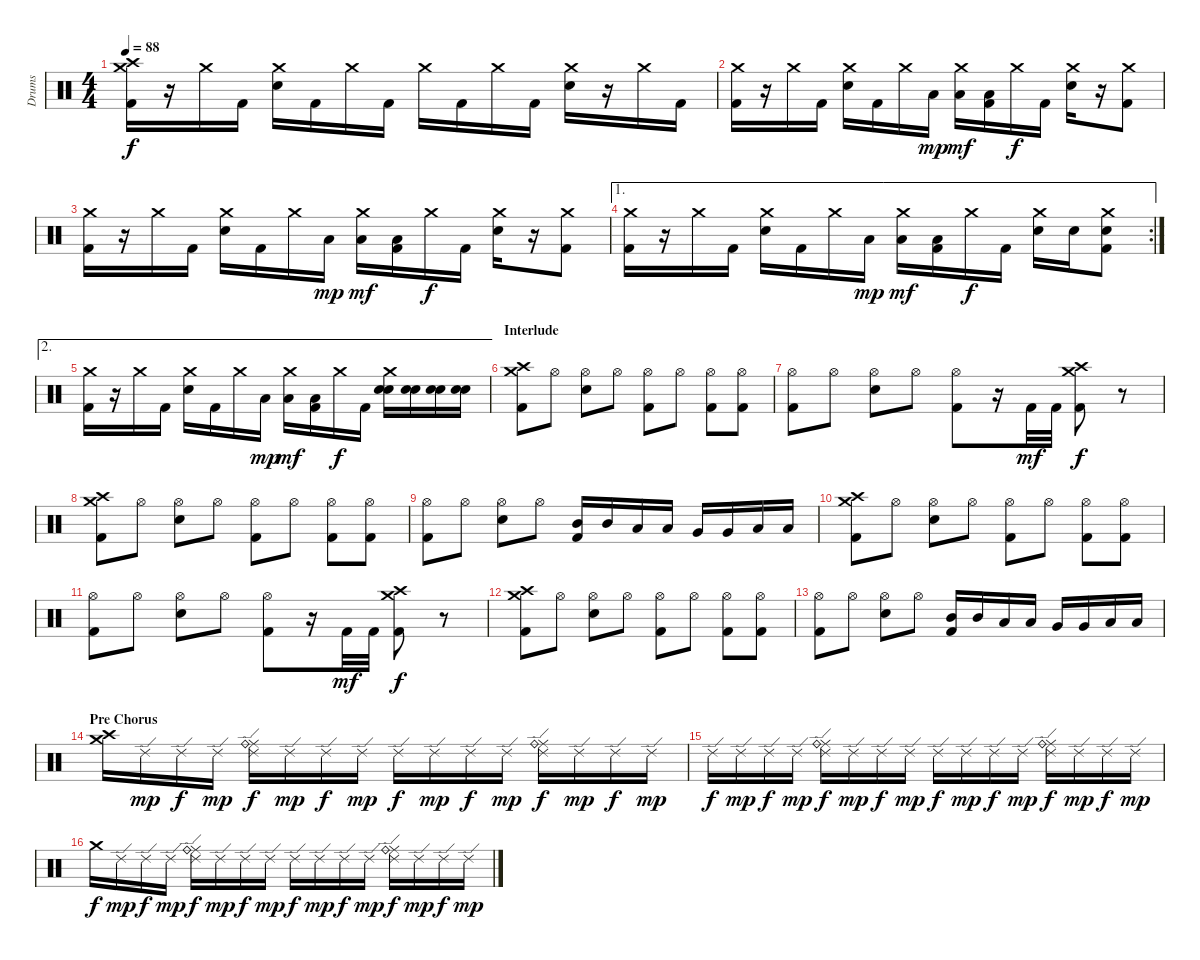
\track ("Drums" "Drums") {instrument percussion}
\staff {score}
\articulation defaults
\ts (4 4)
\tempo 88
\clef neutral
\ks c
("Crash medium (hit)" "Crash high (hit)" "Kick (hit) 2").16{dy f} r.16 "Crash medium (hit)".16 "Kick (hit) 2".16 ("Crash medium (hit)" "Electric Snare (hit)").16 "Kick (hit) 2".16 "Crash medium (hit)".16 "Kick (hit) 2".16 "Crash medium (hit)".16 "Kick (hit) 2".16 "Crash medium (hit)".16 "Kick (hit) 2".16 ("Crash medium (hit)" "Electric Snare (hit)").16 r.16 "Crash medium (hit)".16 "Kick (hit) 2".16 |
("Crash medium (hit)" "Kick (hit) 2").16 r.16 "Crash medium (hit)".16 "Kick (hit) 2".16 ("Crash medium (hit)" "Electric Snare (hit)").16 "Kick (hit) 2".16 "Crash medium (hit)".16 "Low Tom (hit)".16{dy mp} ("Crash medium (hit)" "Low Tom (hit)").16{dy mf} ("Low Tom (hit)" "Kick (hit) 2").16 "Crash medium (hit)".16{dy f} "Kick (hit) 2".16 ("Crash medium (hit)" "Electric Snare (hit)").16 r.16 ("Crash medium (hit)" "Kick (hit) 2").8 |
("Crash medium (hit)" "Kick (hit) 2").16 r.16 "Crash medium (hit)".16 "Kick (hit) 2".16 ("Crash medium (hit)" "Electric Snare (hit)").16 "Kick (hit) 2".16 "Crash medium (hit)".16 "Low Tom (hit)".16{dy mp} ("Crash medium (hit)" "Low Tom (hit)").16{dy mf} ("Low Tom (hit)" "Kick (hit) 2").16 "Crash medium (hit)".16{dy f} "Kick (hit) 2".16 ("Crash medium (hit)" "Electric Snare (hit)").16 r.16 ("Crash medium (hit)" "Kick (hit) 2").8 |
\ae 1
\rc 2
("Crash medium (hit)" "Kick (hit) 2").16 r.16 "Crash medium (hit)".16 "Kick (hit) 2".16 ("Crash medium (hit)" "Electric Snare (hit)").16 "Kick (hit) 2".16 "Crash medium (hit)".16 "Low Tom (hit)".16{dy mp} ("Crash medium (hit)" "Low Tom (hit)").16{dy mf} ("Low Tom (hit)" "Kick (hit) 2").16 "Crash medium (hit)".16{dy f} "Kick (hit) 2".16 ("Crash medium (hit)" "Electric Snare (hit)").16 "Electric Snare (hit)".16 ("Crash medium (hit)" "Electric Snare (hit)" "Kick (hit) 2").8 |
\ae 2
("Crash medium (hit)" "Kick (hit) 2").16 r.16 "Crash medium (hit)".16 "Kick (hit) 2".16 ("Crash medium (hit)" "Electric Snare (hit)").16 "Kick (hit) 2".16 "Crash medium (hit)".16 "Low Tom (hit)".16{dy mp} ("Crash medium (hit)" "Low Tom (hit)").16{dy mf} ("Low Tom (hit)" "Kick (hit) 2").16 "Crash medium (hit)".16{dy f} "Kick (hit) 2".16 ("Crash medium (hit)" "Electric Snare (hit)" "Snare (hit) 2").16 ("Electric Snare (hit)" "Snare (hit) 2").16 ("Electric Snare (hit)" "Snare (hit) 2").16 ("Electric Snare (hit)" "Snare (hit) 2").16 |
\section ("" "Interlude")
("Crash high (hit)" "Crash medium (hit)" "Kick (hit) 2").8 "Hi-Hat (open)".8 ("Hi-Hat (open)" "Electric Snare (hit)").8 "Hi-Hat (open)".8 ("Hi-Hat (open)" "Kick (hit) 2").8 "Hi-Hat (open)".8 ("Hi-Hat (open)" "Kick (hit) 2").8 ("Hi-Hat (open)" "Kick (hit) 2").8 |
("Hi-Hat (open)" "Kick (hit) 2").8 "Hi-Hat (open)".8 ("Hi-Hat (open)" "Electric Snare (hit)").8 "Hi-Hat (open)".8 ("Hi-Hat (open)" "Kick (hit) 2").8 r.16 "Kick (hit) 2".32{dy mf} "Kick (hit) 2".32 ("Crash high (hit)" "Crash medium (hit)" "Kick (hit) 2").8{dy f} r.8 |
("Crash high (hit)" "Crash medium (hit)" "Kick (hit) 2").8 "Hi-Hat (open)".8 ("Hi-Hat (open)" "Electric Snare (hit)").8 "Hi-Hat (open)".8 ("Hi-Hat (open)" "Kick (hit) 2").8 "Hi-Hat (open)".8 ("Hi-Hat (open)" "Kick (hit) 2").8 ("Hi-Hat (open)" "Kick (hit) 2").8 |
("Hi-Hat (open)" "Kick (hit) 2").8 "Hi-Hat (open)".8 ("Hi-Hat (open)" "Electric Snare (hit)").8 "Hi-Hat (open)".8 ("Mid Tom (hit)" "Kick (hit) 2").16 "Mid Tom (hit)".16 "Low Tom (hit)".16 "Low Tom (hit)".16 "Very Low Tom (hit)".16 "Very Low Tom (hit)".16 "Low Floor Tom (hit)".16 "Low Floor Tom (hit)".16 |
("Crash high (hit)" "Crash medium (hit)" "Kick (hit) 2").8 "Hi-Hat (open)".8 ("Hi-Hat (open)" "Electric Snare (hit)").8 "Hi-Hat (open)".8 ("Hi-Hat (open)" "Kick (hit) 2").8 "Hi-Hat (open)".8 ("Hi-Hat (open)" "Kick (hit) 2").8 ("Hi-Hat (open)" "Kick (hit) 2").8 |
("Hi-Hat (open)" "Kick (hit) 2").8 "Hi-Hat (open)".8 ("Hi-Hat (open)" "Electric Snare (hit)").8 "Hi-Hat (open)".8 ("Hi-Hat (open)" "Kick (hit) 2").8 r.16 "Kick (hit) 2".32{dy mf} "Kick (hit) 2".32 ("Crash high (hit)" "Crash medium (hit)" "Kick (hit) 2").8{dy f} r.8 |
("Crash high (hit)" "Crash medium (hit)" "Kick (hit) 2").8 "Hi-Hat (open)".8 ("Hi-Hat (open)" "Electric Snare (hit)").8 "Hi-Hat (open)".8 ("Hi-Hat (open)" "Kick (hit) 2").8 "Hi-Hat (open)".8 ("Hi-Hat (open)" "Kick (hit) 2").8 ("Hi-Hat (open)" "Kick (hit) 2").8 |
("Hi-Hat (open)" "Kick (hit) 2").8 "Hi-Hat (open)".8 ("Hi-Hat (open)" "Electric Snare (hit)").8 "Hi-Hat (open)".8 ("Mid Tom (hit)" "Kick (hit) 2").16 "Mid Tom (hit)".16 "Low Tom (hit)".16 "Low Tom (hit)".16 "Very Low Tom (hit)".16 "Very Low Tom (hit)".16 "Low Floor Tom (hit)".16 "Low Floor Tom (hit)".16 |
\section ("" "Pre Chorus")
("Crash high (hit)" "Crash medium (hit)").16 "Ride (edge) 2".16{dy mp} "Ride (edge) 2".16{dy f} "Ride (edge) 2".16{dy mp} ("Ride (edge) 2" "Ride (middle)" "Ride (bell)").16{dy f} "Ride (edge) 2".16{dy mp} "Ride (edge) 2".16{dy f} "Ride (edge) 2".16{dy mp} "Ride (edge) 2".16{dy f} "Ride (edge) 2".16{dy mp} "Ride (edge) 2".16{dy f} "Ride (edge) 2".16{dy mp} ("Ride (edge) 2" "Ride (middle)" "Ride (bell)").16{dy f} "Ride (edge) 2".16{dy mp} "Ride (edge) 2".16{dy f} "Ride (edge) 2".16{dy mp} |
"Ride (edge) 2".16{dy f} "Ride (edge) 2".16{dy mp} "Ride (edge) 2".16{dy f} "Ride (edge) 2".16{dy mp} ("Ride (edge) 2" "Ride (middle)" "Ride (bell)").16{dy f} "Ride (edge) 2".16{dy mp} "Ride (edge) 2".16{dy f} "Ride (edge) 2".16{dy mp} "Ride (edge) 2".16{dy f} "Ride (edge) 2".16{dy mp} "Ride (edge) 2".16{dy f} "Ride (edge) 2".16{dy mp} ("Ride (edge) 2" "Ride (middle)" "Ride (bell)").16{dy f} "Ride (edge) 2".16{dy mp} "Ride (edge) 2".16{dy f} "Ride (edge) 2".16{dy mp} |
"Crash medium (hit)".16{dy f} "Ride (edge) 2".16{dy mp} "Ride (edge) 2".16{dy f} "Ride (edge) 2".16{dy mp} ("Ride (edge) 2" "Ride (middle)" "Ride (bell)").16{dy f} "Ride (edge) 2".16{dy mp} "Ride (edge) 2".16{dy f} "Ride (edge) 2".16{dy mp} "Ride (edge) 2".16{dy f} "Ride (edge) 2".16{dy mp} "Ride (edge) 2".16{dy f} "Ride (edge) 2".16{dy mp} ("Ride (edge) 2" "Ride (middle)" "Ride (bell)").16{dy f} "Ride (edge) 2".16{dy mp} "Ride (edge) 2".16{dy f} "Ride (edge) 2".16{dy mp}
